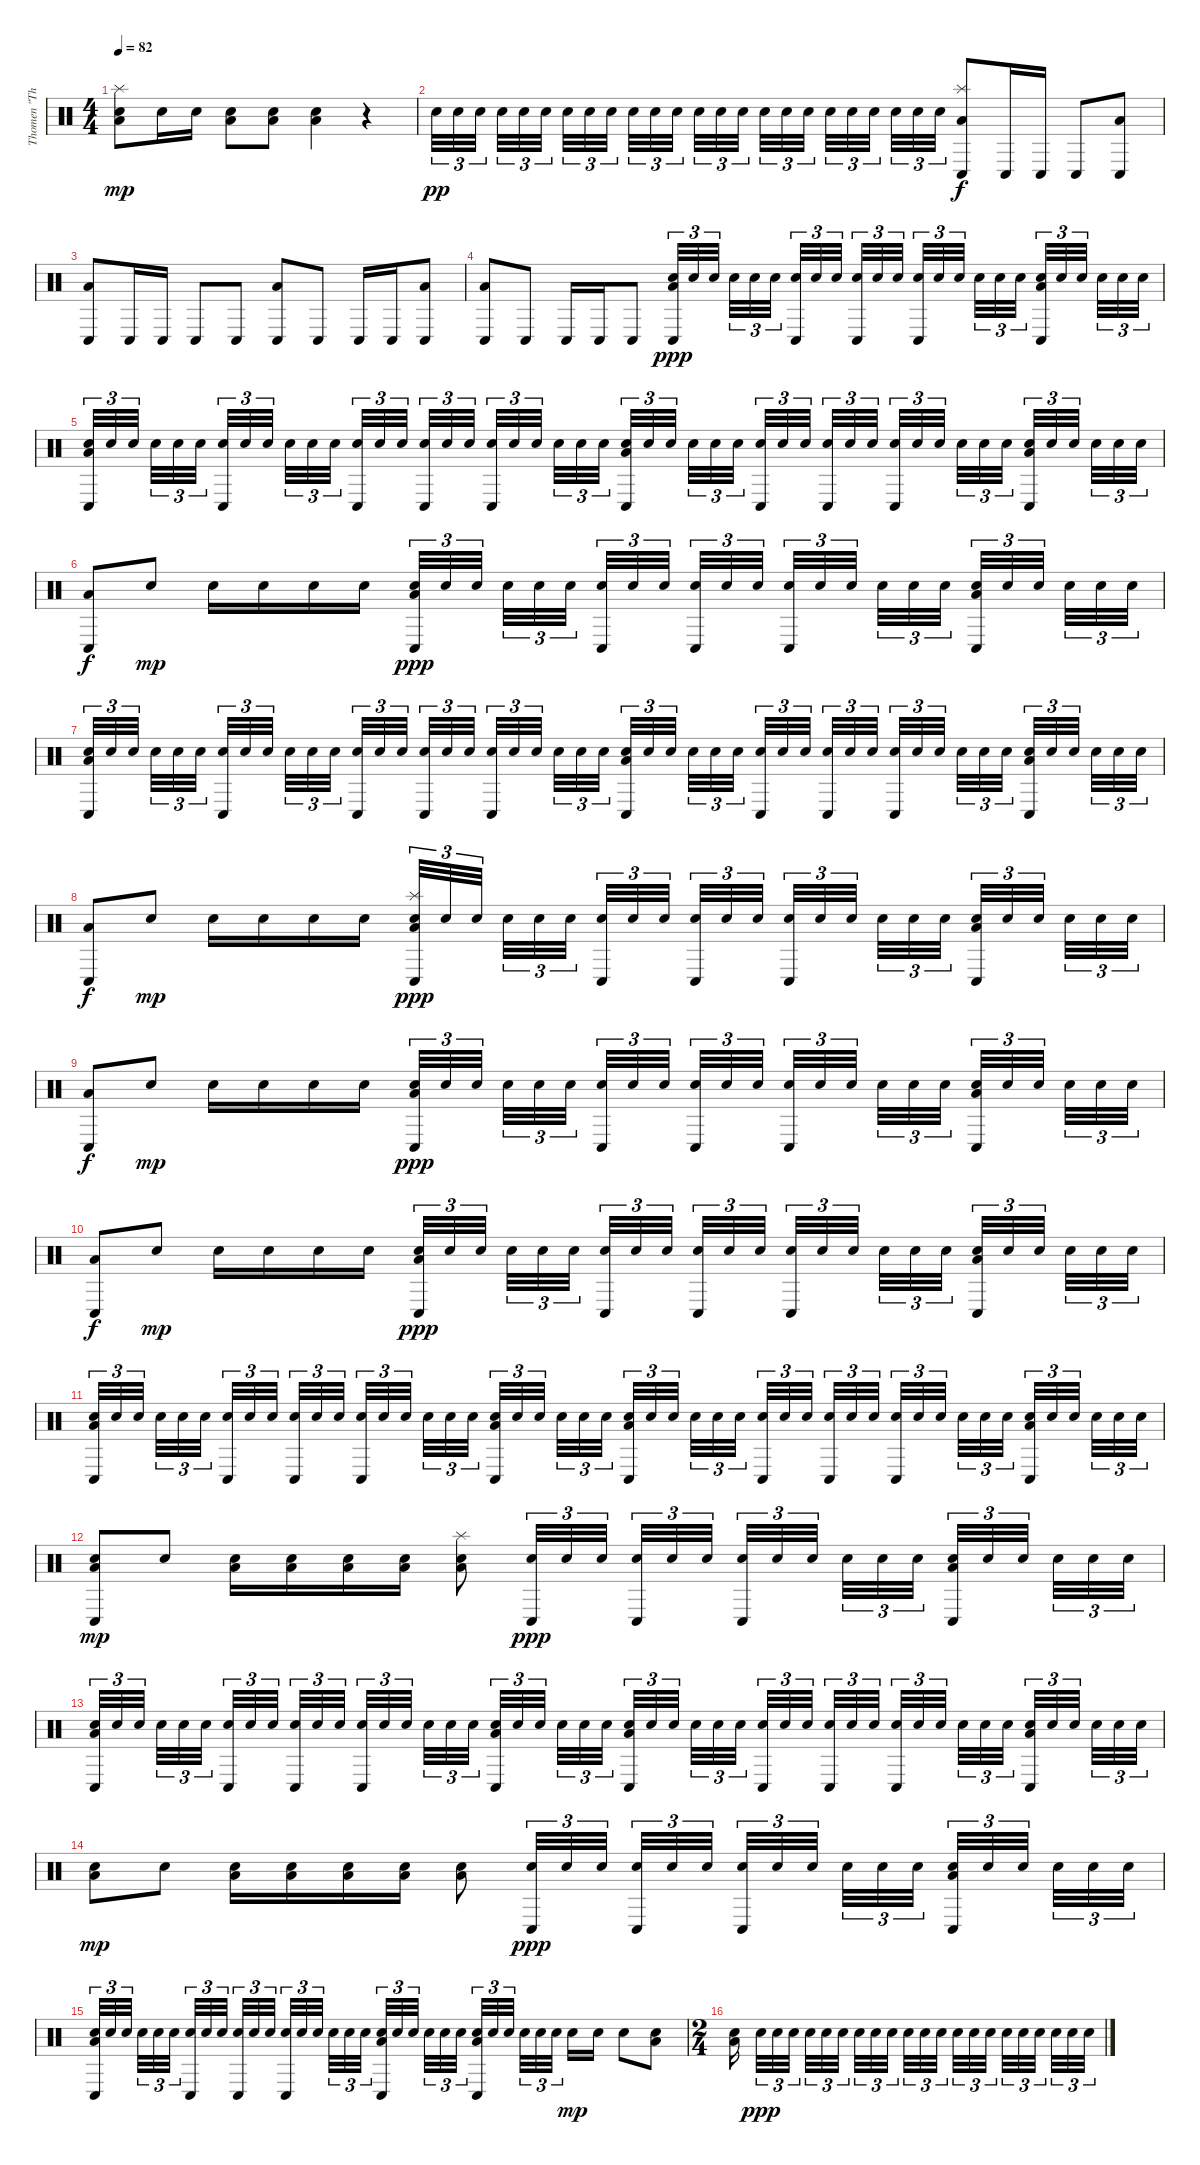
\track ("Thomen \"The Omen\" Stauch " "Thomen \"Th") {instrument percussion}
\staff {score}
\articulation defaults
\ts (4 4)
\tempo 82
\clef neutral
\ks c
("Low Floor Tom (hit)" "Snare (hit) 2" "Splash (hit)").8{dy mp} "Snare (hit) 2".16 "Snare (hit) 2".16 ("Low Floor Tom (hit)" "Snare (hit) 2").8 ("Low Floor Tom (hit)" "Snare (hit) 2").8 ("Low Floor Tom (hit)" "Snare (hit) 2").4 r.4 |
"Snare (hit) 2".32{tu (3 2) dy pp} "Snare (hit) 2".32{tu (3 2)} "Snare (hit) 2".32{tu (3 2)} "Snare (hit) 2".32{tu (3 2)} "Snare (hit) 2".32{tu (3 2)} "Snare (hit) 2".32{tu (3 2)} "Snare (hit) 2".32{tu (3 2)} "Snare (hit) 2".32{tu (3 2)} "Snare (hit) 2".32{tu (3 2)} "Snare (hit) 2".32{tu (3 2)} "Snare (hit) 2".32{tu (3 2)} "Snare (hit) 2".32{tu (3 2)} "Snare (hit) 2".32{tu (3 2)} "Snare (hit) 2".32{tu (3 2)} "Snare (hit) 2".32{tu (3 2)} "Snare (hit) 2".32{tu (3 2)} "Snare (hit) 2".32{tu (3 2)} "Snare (hit) 2".32{tu (3 2)} "Snare (hit) 2".32{tu (3 2)} "Snare (hit) 2".32{tu (3 2)} "Snare (hit) 2".32{tu (3 2)} "Snare (hit) 2".32{tu (3 2)} "Snare (hit) 2".32{tu (3 2)} "Snare (hit) 2".32{tu (3 2)} ("Low Floor Tom (hit)" "Conga low (hit)" "Splash (hit)").8{dy f} "Conga low (hit)".16 "Conga low (hit)".16 "Conga low (hit)".8 ("Low Floor Tom (hit)" "Conga low (hit)").8 |
("Low Floor Tom (hit)" "Conga low (hit)").8 "Conga low (hit)".16 "Conga low (hit)".16 "Conga low (hit)".8 "Conga low (hit)".8 ("Low Floor Tom (hit)" "Conga low (hit)").8 "Conga low (hit)".8 "Conga low (hit)".16 "Conga low (hit)".16 ("Low Floor Tom (hit)" "Conga low (hit)").8 |
("Low Floor Tom (hit)" "Conga low (hit)").8 "Conga low (hit)".8 "Conga low (hit)".16 "Conga low (hit)".16 "Conga low (hit)".8 ("Low Floor Tom (hit)" "Conga low (hit)" "Snare (hit) 2").32{tu (3 2) dy ppp} "Snare (hit) 2".32{tu (3 2)} "Snare (hit) 2".32{tu (3 2)} "Snare (hit) 2".32{tu (3 2)} "Snare (hit) 2".32{tu (3 2)} "Snare (hit) 2".32{tu (3 2)} ("Conga low (hit)" "Snare (hit) 2").32{tu (3 2)} "Snare (hit) 2".32{tu (3 2)} "Snare (hit) 2".32{tu (3 2)} ("Conga low (hit)" "Snare (hit) 2").32{tu (3 2)} "Snare (hit) 2".32{tu (3 2)} "Snare (hit) 2".32{tu (3 2)} ("Conga low (hit)" "Snare (hit) 2").32{tu (3 2)} "Snare (hit) 2".32{tu (3 2)} "Snare (hit) 2".32{tu (3 2)} "Snare (hit) 2".32{tu (3 2)} "Snare (hit) 2".32{tu (3 2)} "Snare (hit) 2".32{tu (3 2)} ("Low Floor Tom (hit)" "Conga low (hit)" "Snare (hit) 2").32{tu (3 2)} "Snare (hit) 2".32{tu (3 2)} "Snare (hit) 2".32{tu (3 2)} "Snare (hit) 2".32{tu (3 2)} "Snare (hit) 2".32{tu (3 2)} "Snare (hit) 2".32{tu (3 2)} |
("Low Floor Tom (hit)" "Conga low (hit)" "Snare (hit) 2").32{tu (3 2)} "Snare (hit) 2".32{tu (3 2)} "Snare (hit) 2".32{tu (3 2)} "Snare (hit) 2".32{tu (3 2)} "Snare (hit) 2".32{tu (3 2)} "Snare (hit) 2".32{tu (3 2)} ("Conga low (hit)" "Snare (hit) 2").32{tu (3 2)} "Snare (hit) 2".32{tu (3 2)} "Snare (hit) 2".32{tu (3 2)} "Snare (hit) 2".32{tu (3 2)} "Snare (hit) 2".32{tu (3 2)} "Snare (hit) 2".32{tu (3 2)} ("Conga low (hit)" "Snare (hit) 2").32{tu (3 2)} "Snare (hit) 2".32{tu (3 2)} "Snare (hit) 2".32{tu (3 2)} ("Conga low (hit)" "Snare (hit) 2").32{tu (3 2)} "Snare (hit) 2".32{tu (3 2)} "Snare (hit) 2".32{tu (3 2)} ("Conga low (hit)" "Snare (hit) 2").32{tu (3 2)} "Snare (hit) 2".32{tu (3 2)} "Snare (hit) 2".32{tu (3 2)} "Snare (hit) 2".32{tu (3 2)} "Snare (hit) 2".32{tu (3 2)} "Snare (hit) 2".32{tu (3 2)} ("Low Floor Tom (hit)" "Conga low (hit)" "Snare (hit) 2").32{tu (3 2)} "Snare (hit) 2".32{tu (3 2)} "Snare (hit) 2".32{tu (3 2)} "Snare (hit) 2".32{tu (3 2)} "Snare (hit) 2".32{tu (3 2)} "Snare (hit) 2".32{tu (3 2)} ("Conga low (hit)" "Snare (hit) 2").32{tu (3 2)} "Snare (hit) 2".32{tu (3 2)} "Snare (hit) 2".32{tu (3 2)} ("Conga low (hit)" "Snare (hit) 2").32{tu (3 2)} "Snare (hit) 2".32{tu (3 2)} "Snare (hit) 2".32{tu (3 2)} ("Conga low (hit)" "Snare (hit) 2").32{tu (3 2)} "Snare (hit) 2".32{tu (3 2)} "Snare (hit) 2".32{tu (3 2)} "Snare (hit) 2".32{tu (3 2)} "Snare (hit) 2".32{tu (3 2)} "Snare (hit) 2".32{tu (3 2)} ("Low Floor Tom (hit)" "Conga low (hit)" "Snare (hit) 2").32{tu (3 2)} "Snare (hit) 2".32{tu (3 2)} "Snare (hit) 2".32{tu (3 2)} "Snare (hit) 2".32{tu (3 2)} "Snare (hit) 2".32{tu (3 2)} "Snare (hit) 2".32{tu (3 2)} |
("Low Floor Tom (hit)" "Conga low (hit)").8{dy f} "Snare (hit) 2".8{dy mp} "Snare (hit) 2".16 "Snare (hit) 2".16 "Snare (hit) 2".16 "Snare (hit) 2".16 ("Low Floor Tom (hit)" "Conga low (hit)" "Snare (hit) 2").32{tu (3 2) dy ppp} "Snare (hit) 2".32{tu (3 2)} "Snare (hit) 2".32{tu (3 2)} "Snare (hit) 2".32{tu (3 2)} "Snare (hit) 2".32{tu (3 2)} "Snare (hit) 2".32{tu (3 2)} ("Conga low (hit)" "Snare (hit) 2").32{tu (3 2)} "Snare (hit) 2".32{tu (3 2)} "Snare (hit) 2".32{tu (3 2)} ("Conga low (hit)" "Snare (hit) 2").32{tu (3 2)} "Snare (hit) 2".32{tu (3 2)} "Snare (hit) 2".32{tu (3 2)} ("Conga low (hit)" "Snare (hit) 2").32{tu (3 2)} "Snare (hit) 2".32{tu (3 2)} "Snare (hit) 2".32{tu (3 2)} "Snare (hit) 2".32{tu (3 2)} "Snare (hit) 2".32{tu (3 2)} "Snare (hit) 2".32{tu (3 2)} ("Low Floor Tom (hit)" "Conga low (hit)" "Snare (hit) 2").32{tu (3 2)} "Snare (hit) 2".32{tu (3 2)} "Snare (hit) 2".32{tu (3 2)} "Snare (hit) 2".32{tu (3 2)} "Snare (hit) 2".32{tu (3 2)} "Snare (hit) 2".32{tu (3 2)} |
("Low Floor Tom (hit)" "Conga low (hit)" "Snare (hit) 2").32{tu (3 2)} "Snare (hit) 2".32{tu (3 2)} "Snare (hit) 2".32{tu (3 2)} "Snare (hit) 2".32{tu (3 2)} "Snare (hit) 2".32{tu (3 2)} "Snare (hit) 2".32{tu (3 2)} ("Conga low (hit)" "Snare (hit) 2").32{tu (3 2)} "Snare (hit) 2".32{tu (3 2)} "Snare (hit) 2".32{tu (3 2)} "Snare (hit) 2".32{tu (3 2)} "Snare (hit) 2".32{tu (3 2)} "Snare (hit) 2".32{tu (3 2)} ("Conga low (hit)" "Snare (hit) 2").32{tu (3 2)} "Snare (hit) 2".32{tu (3 2)} "Snare (hit) 2".32{tu (3 2)} ("Conga low (hit)" "Snare (hit) 2").32{tu (3 2)} "Snare (hit) 2".32{tu (3 2)} "Snare (hit) 2".32{tu (3 2)} ("Conga low (hit)" "Snare (hit) 2").32{tu (3 2)} "Snare (hit) 2".32{tu (3 2)} "Snare (hit) 2".32{tu (3 2)} "Snare (hit) 2".32{tu (3 2)} "Snare (hit) 2".32{tu (3 2)} "Snare (hit) 2".32{tu (3 2)} ("Low Floor Tom (hit)" "Conga low (hit)" "Snare (hit) 2").32{tu (3 2)} "Snare (hit) 2".32{tu (3 2)} "Snare (hit) 2".32{tu (3 2)} "Snare (hit) 2".32{tu (3 2)} "Snare (hit) 2".32{tu (3 2)} "Snare (hit) 2".32{tu (3 2)} ("Conga low (hit)" "Snare (hit) 2").32{tu (3 2)} "Snare (hit) 2".32{tu (3 2)} "Snare (hit) 2".32{tu (3 2)} ("Conga low (hit)" "Snare (hit) 2").32{tu (3 2)} "Snare (hit) 2".32{tu (3 2)} "Snare (hit) 2".32{tu (3 2)} ("Conga low (hit)" "Snare (hit) 2").32{tu (3 2)} "Snare (hit) 2".32{tu (3 2)} "Snare (hit) 2".32{tu (3 2)} "Snare (hit) 2".32{tu (3 2)} "Snare (hit) 2".32{tu (3 2)} "Snare (hit) 2".32{tu (3 2)} ("Low Floor Tom (hit)" "Conga low (hit)" "Snare (hit) 2").32{tu (3 2)} "Snare (hit) 2".32{tu (3 2)} "Snare (hit) 2".32{tu (3 2)} "Snare (hit) 2".32{tu (3 2)} "Snare (hit) 2".32{tu (3 2)} "Snare (hit) 2".32{tu (3 2)} |
("Low Floor Tom (hit)" "Conga low (hit)").8{dy f} "Snare (hit) 2".8{dy mp} "Snare (hit) 2".16 "Snare (hit) 2".16 "Snare (hit) 2".16 "Snare (hit) 2".16 ("Low Floor Tom (hit)" "Conga low (hit)" "Snare (hit) 2" "Splash (hit)").32{tu (3 2) dy ppp} "Snare (hit) 2".32{tu (3 2)} "Snare (hit) 2".32{tu (3 2)} "Snare (hit) 2".32{tu (3 2)} "Snare (hit) 2".32{tu (3 2)} "Snare (hit) 2".32{tu (3 2)} ("Conga low (hit)" "Snare (hit) 2").32{tu (3 2)} "Snare (hit) 2".32{tu (3 2)} "Snare (hit) 2".32{tu (3 2)} ("Conga low (hit)" "Snare (hit) 2").32{tu (3 2)} "Snare (hit) 2".32{tu (3 2)} "Snare (hit) 2".32{tu (3 2)} ("Conga low (hit)" "Snare (hit) 2").32{tu (3 2)} "Snare (hit) 2".32{tu (3 2)} "Snare (hit) 2".32{tu (3 2)} "Snare (hit) 2".32{tu (3 2)} "Snare (hit) 2".32{tu (3 2)} "Snare (hit) 2".32{tu (3 2)} ("Low Floor Tom (hit)" "Conga low (hit)" "Snare (hit) 2").32{tu (3 2)} "Snare (hit) 2".32{tu (3 2)} "Snare (hit) 2".32{tu (3 2)} "Snare (hit) 2".32{tu (3 2)} "Snare (hit) 2".32{tu (3 2)} "Snare (hit) 2".32{tu (3 2)} |
("Low Floor Tom (hit)" "Conga low (hit)").8{dy f} "Snare (hit) 2".8{dy mp} "Snare (hit) 2".16 "Snare (hit) 2".16 "Snare (hit) 2".16 "Snare (hit) 2".16 ("Low Floor Tom (hit)" "Conga low (hit)" "Snare (hit) 2").32{tu (3 2) dy ppp} "Snare (hit) 2".32{tu (3 2)} "Snare (hit) 2".32{tu (3 2)} "Snare (hit) 2".32{tu (3 2)} "Snare (hit) 2".32{tu (3 2)} "Snare (hit) 2".32{tu (3 2)} ("Conga low (hit)" "Snare (hit) 2").32{tu (3 2)} "Snare (hit) 2".32{tu (3 2)} "Snare (hit) 2".32{tu (3 2)} ("Conga low (hit)" "Snare (hit) 2").32{tu (3 2)} "Snare (hit) 2".32{tu (3 2)} "Snare (hit) 2".32{tu (3 2)} ("Conga low (hit)" "Snare (hit) 2").32{tu (3 2)} "Snare (hit) 2".32{tu (3 2)} "Snare (hit) 2".32{tu (3 2)} "Snare (hit) 2".32{tu (3 2)} "Snare (hit) 2".32{tu (3 2)} "Snare (hit) 2".32{tu (3 2)} ("Low Floor Tom (hit)" "Conga low (hit)" "Snare (hit) 2").32{tu (3 2)} "Snare (hit) 2".32{tu (3 2)} "Snare (hit) 2".32{tu (3 2)} "Snare (hit) 2".32{tu (3 2)} "Snare (hit) 2".32{tu (3 2)} "Snare (hit) 2".32{tu (3 2)} |
("Low Floor Tom (hit)" "Conga low (hit)").8{dy f} "Snare (hit) 2".8{dy mp} "Snare (hit) 2".16 "Snare (hit) 2".16 "Snare (hit) 2".16 "Snare (hit) 2".16 ("Low Floor Tom (hit)" "Conga low (hit)" "Snare (hit) 2").32{tu (3 2) dy ppp} "Snare (hit) 2".32{tu (3 2)} "Snare (hit) 2".32{tu (3 2)} "Snare (hit) 2".32{tu (3 2)} "Snare (hit) 2".32{tu (3 2)} "Snare (hit) 2".32{tu (3 2)} ("Conga low (hit)" "Snare (hit) 2").32{tu (3 2)} "Snare (hit) 2".32{tu (3 2)} "Snare (hit) 2".32{tu (3 2)} ("Conga low (hit)" "Snare (hit) 2").32{tu (3 2)} "Snare (hit) 2".32{tu (3 2)} "Snare (hit) 2".32{tu (3 2)} ("Conga low (hit)" "Snare (hit) 2").32{tu (3 2)} "Snare (hit) 2".32{tu (3 2)} "Snare (hit) 2".32{tu (3 2)} "Snare (hit) 2".32{tu (3 2)} "Snare (hit) 2".32{tu (3 2)} "Snare (hit) 2".32{tu (3 2)} ("Low Floor Tom (hit)" "Conga low (hit)" "Snare (hit) 2").32{tu (3 2)} "Snare (hit) 2".32{tu (3 2)} "Snare (hit) 2".32{tu (3 2)} "Snare (hit) 2".32{tu (3 2)} "Snare (hit) 2".32{tu (3 2)} "Snare (hit) 2".32{tu (3 2)} |
("Low Floor Tom (hit)" "Conga low (hit)" "Snare (hit) 2").32{tu (3 2)} "Snare (hit) 2".32{tu (3 2)} "Snare (hit) 2".32{tu (3 2)} "Snare (hit) 2".32{tu (3 2)} "Snare (hit) 2".32{tu (3 2)} "Snare (hit) 2".32{tu (3 2)} ("Conga low (hit)" "Snare (hit) 2").32{tu (3 2)} "Snare (hit) 2".32{tu (3 2)} "Snare (hit) 2".32{tu (3 2)} ("Conga low (hit)" "Snare (hit) 2").32{tu (3 2)} "Snare (hit) 2".32{tu (3 2)} "Snare (hit) 2".32{tu (3 2)} ("Conga low (hit)" "Snare (hit) 2").32{tu (3 2)} "Snare (hit) 2".32{tu (3 2)} "Snare (hit) 2".32{tu (3 2)} "Snare (hit) 2".32{tu (3 2)} "Snare (hit) 2".32{tu (3 2)} "Snare (hit) 2".32{tu (3 2)} ("Low Floor Tom (hit)" "Conga low (hit)" "Snare (hit) 2").32{tu (3 2)} "Snare (hit) 2".32{tu (3 2)} "Snare (hit) 2".32{tu (3 2)} "Snare (hit) 2".32{tu (3 2)} "Snare (hit) 2".32{tu (3 2)} "Snare (hit) 2".32{tu (3 2)} ("Low Floor Tom (hit)" "Conga low (hit)" "Snare (hit) 2").32{tu (3 2)} "Snare (hit) 2".32{tu (3 2)} "Snare (hit) 2".32{tu (3 2)} "Snare (hit) 2".32{tu (3 2)} "Snare (hit) 2".32{tu (3 2)} "Snare (hit) 2".32{tu (3 2)} ("Conga low (hit)" "Snare (hit) 2").32{tu (3 2)} "Snare (hit) 2".32{tu (3 2)} "Snare (hit) 2".32{tu (3 2)} ("Conga low (hit)" "Snare (hit) 2").32{tu (3 2)} "Snare (hit) 2".32{tu (3 2)} "Snare (hit) 2".32{tu (3 2)} ("Conga low (hit)" "Snare (hit) 2").32{tu (3 2)} "Snare (hit) 2".32{tu (3 2)} "Snare (hit) 2".32{tu (3 2)} "Snare (hit) 2".32{tu (3 2)} "Snare (hit) 2".32{tu (3 2)} "Snare (hit) 2".32{tu (3 2)} ("Low Floor Tom (hit)" "Conga low (hit)" "Snare (hit) 2").32{tu (3 2)} "Snare (hit) 2".32{tu (3 2)} "Snare (hit) 2".32{tu (3 2)} "Snare (hit) 2".32{tu (3 2)} "Snare (hit) 2".32{tu (3 2)} "Snare (hit) 2".32{tu (3 2)} |
("Low Floor Tom (hit)" "Conga low (hit)" "Snare (hit) 2").8{dy mp} "Snare (hit) 2".8 ("Low Floor Tom (hit)" "Snare (hit) 2").16 ("Low Floor Tom (hit)" "Snare (hit) 2").16 ("Low Floor Tom (hit)" "Snare (hit) 2").16 ("Low Floor Tom (hit)" "Snare (hit) 2").16 ("Low Floor Tom (hit)" "Snare (hit) 2" "Splash (hit)").8 ("Conga low (hit)" "Snare (hit) 2").32{tu (3 2) dy ppp} "Snare (hit) 2".32{tu (3 2)} "Snare (hit) 2".32{tu (3 2)} ("Conga low (hit)" "Snare (hit) 2").32{tu (3 2)} "Snare (hit) 2".32{tu (3 2)} "Snare (hit) 2".32{tu (3 2)} ("Conga low (hit)" "Snare (hit) 2").32{tu (3 2)} "Snare (hit) 2".32{tu (3 2)} "Snare (hit) 2".32{tu (3 2)} "Snare (hit) 2".32{tu (3 2)} "Snare (hit) 2".32{tu (3 2)} "Snare (hit) 2".32{tu (3 2)} ("Low Floor Tom (hit)" "Conga low (hit)" "Snare (hit) 2").32{tu (3 2)} "Snare (hit) 2".32{tu (3 2)} "Snare (hit) 2".32{tu (3 2)} "Snare (hit) 2".32{tu (3 2)} "Snare (hit) 2".32{tu (3 2)} "Snare (hit) 2".32{tu (3 2)} |
("Low Floor Tom (hit)" "Conga low (hit)" "Snare (hit) 2").32{tu (3 2)} "Snare (hit) 2".32{tu (3 2)} "Snare (hit) 2".32{tu (3 2)} "Snare (hit) 2".32{tu (3 2)} "Snare (hit) 2".32{tu (3 2)} "Snare (hit) 2".32{tu (3 2)} ("Conga low (hit)" "Snare (hit) 2").32{tu (3 2)} "Snare (hit) 2".32{tu (3 2)} "Snare (hit) 2".32{tu (3 2)} ("Conga low (hit)" "Snare (hit) 2").32{tu (3 2)} "Snare (hit) 2".32{tu (3 2)} "Snare (hit) 2".32{tu (3 2)} ("Conga low (hit)" "Snare (hit) 2").32{tu (3 2)} "Snare (hit) 2".32{tu (3 2)} "Snare (hit) 2".32{tu (3 2)} "Snare (hit) 2".32{tu (3 2)} "Snare (hit) 2".32{tu (3 2)} "Snare (hit) 2".32{tu (3 2)} ("Low Floor Tom (hit)" "Conga low (hit)" "Snare (hit) 2").32{tu (3 2)} "Snare (hit) 2".32{tu (3 2)} "Snare (hit) 2".32{tu (3 2)} "Snare (hit) 2".32{tu (3 2)} "Snare (hit) 2".32{tu (3 2)} "Snare (hit) 2".32{tu (3 2)} ("Low Floor Tom (hit)" "Conga low (hit)" "Snare (hit) 2").32{tu (3 2)} "Snare (hit) 2".32{tu (3 2)} "Snare (hit) 2".32{tu (3 2)} "Snare (hit) 2".32{tu (3 2)} "Snare (hit) 2".32{tu (3 2)} "Snare (hit) 2".32{tu (3 2)} ("Conga low (hit)" "Snare (hit) 2").32{tu (3 2)} "Snare (hit) 2".32{tu (3 2)} "Snare (hit) 2".32{tu (3 2)} ("Conga low (hit)" "Snare (hit) 2").32{tu (3 2)} "Snare (hit) 2".32{tu (3 2)} "Snare (hit) 2".32{tu (3 2)} ("Conga low (hit)" "Snare (hit) 2").32{tu (3 2)} "Snare (hit) 2".32{tu (3 2)} "Snare (hit) 2".32{tu (3 2)} "Snare (hit) 2".32{tu (3 2)} "Snare (hit) 2".32{tu (3 2)} "Snare (hit) 2".32{tu (3 2)} ("Low Floor Tom (hit)" "Conga low (hit)" "Snare (hit) 2").32{tu (3 2)} "Snare (hit) 2".32{tu (3 2)} "Snare (hit) 2".32{tu (3 2)} "Snare (hit) 2".32{tu (3 2)} "Snare (hit) 2".32{tu (3 2)} "Snare (hit) 2".32{tu (3 2)} |
("Low Floor Tom (hit)" "Snare (hit) 2").8{dy mp} "Snare (hit) 2".8 ("Low Floor Tom (hit)" "Snare (hit) 2").16 ("Low Floor Tom (hit)" "Snare (hit) 2").16 ("Low Floor Tom (hit)" "Snare (hit) 2").16 ("Low Floor Tom (hit)" "Snare (hit) 2").16 ("Low Floor Tom (hit)" "Snare (hit) 2").8 ("Conga low (hit)" "Snare (hit) 2").32{tu (3 2) dy ppp} "Snare (hit) 2".32{tu (3 2)} "Snare (hit) 2".32{tu (3 2)} ("Conga low (hit)" "Snare (hit) 2").32{tu (3 2)} "Snare (hit) 2".32{tu (3 2)} "Snare (hit) 2".32{tu (3 2)} ("Conga low (hit)" "Snare (hit) 2").32{tu (3 2)} "Snare (hit) 2".32{tu (3 2)} "Snare (hit) 2".32{tu (3 2)} "Snare (hit) 2".32{tu (3 2)} "Snare (hit) 2".32{tu (3 2)} "Snare (hit) 2".32{tu (3 2)} ("Low Floor Tom (hit)" "Conga low (hit)" "Snare (hit) 2").32{tu (3 2)} "Snare (hit) 2".32{tu (3 2)} "Snare (hit) 2".32{tu (3 2)} "Snare (hit) 2".32{tu (3 2)} "Snare (hit) 2".32{tu (3 2)} "Snare (hit) 2".32{tu (3 2)} |
("Low Floor Tom (hit)" "Conga low (hit)" "Snare (hit) 2").32{tu (3 2)} "Snare (hit) 2".32{tu (3 2)} "Snare (hit) 2".32{tu (3 2)} "Snare (hit) 2".32{tu (3 2)} "Snare (hit) 2".32{tu (3 2)} "Snare (hit) 2".32{tu (3 2)} ("Conga low (hit)" "Snare (hit) 2").32{tu (3 2)} "Snare (hit) 2".32{tu (3 2)} "Snare (hit) 2".32{tu (3 2)} ("Conga low (hit)" "Snare (hit) 2").32{tu (3 2)} "Snare (hit) 2".32{tu (3 2)} "Snare (hit) 2".32{tu (3 2)} ("Conga low (hit)" "Snare (hit) 2").32{tu (3 2)} "Snare (hit) 2".32{tu (3 2)} "Snare (hit) 2".32{tu (3 2)} "Snare (hit) 2".32{tu (3 2)} "Snare (hit) 2".32{tu (3 2)} "Snare (hit) 2".32{tu (3 2)} ("Low Floor Tom (hit)" "Conga low (hit)" "Snare (hit) 2").32{tu (3 2)} "Snare (hit) 2".32{tu (3 2)} "Snare (hit) 2".32{tu (3 2)} "Snare (hit) 2".32{tu (3 2)} "Snare (hit) 2".32{tu (3 2)} "Snare (hit) 2".32{tu (3 2)} ("Low Floor Tom (hit)" "Conga low (hit)" "Snare (hit) 2").32{tu (3 2)} "Snare (hit) 2".32{tu (3 2)} "Snare (hit) 2".32{tu (3 2)} "Snare (hit) 2".32{tu (3 2)} "Snare (hit) 2".32{tu (3 2)} "Snare (hit) 2".32{tu (3 2)} "Snare (hit) 2".16{dy mp} "Snare (hit) 2".16 "Snare (hit) 2".8 ("Low Floor Tom (hit)" "Snare (hit) 2").8 |
\ts (2 4)
("Low Floor Tom (hit)" "Snare (hit) 2").16 "Snare (hit) 2".32{tu (3 2) dy ppp} "Snare (hit) 2".32{tu (3 2)} "Snare (hit) 2".32{tu (3 2)} "Snare (hit) 2".32{tu (3 2)} "Snare (hit) 2".32{tu (3 2)} "Snare (hit) 2".32{tu (3 2)} "Snare (hit) 2".32{tu (3 2)} "Snare (hit) 2".32{tu (3 2)} "Snare (hit) 2".32{tu (3 2)} "Snare (hit) 2".32{tu (3 2)} "Snare (hit) 2".32{tu (3 2)} "Snare (hit) 2".32{tu (3 2)} "Snare (hit) 2".32{tu (3 2)} "Snare (hit) 2".32{tu (3 2)} "Snare (hit) 2".32{tu (3 2)} "Snare (hit) 2".32{tu (3 2)} "Snare (hit) 2".32{tu (3 2)} "Snare (hit) 2".32{tu (3 2)} "Snare (hit) 2".32{tu (3 2)} "Snare (hit) 2".32{tu (3 2)} "Snare (hit) 2".32{tu (3 2)}
